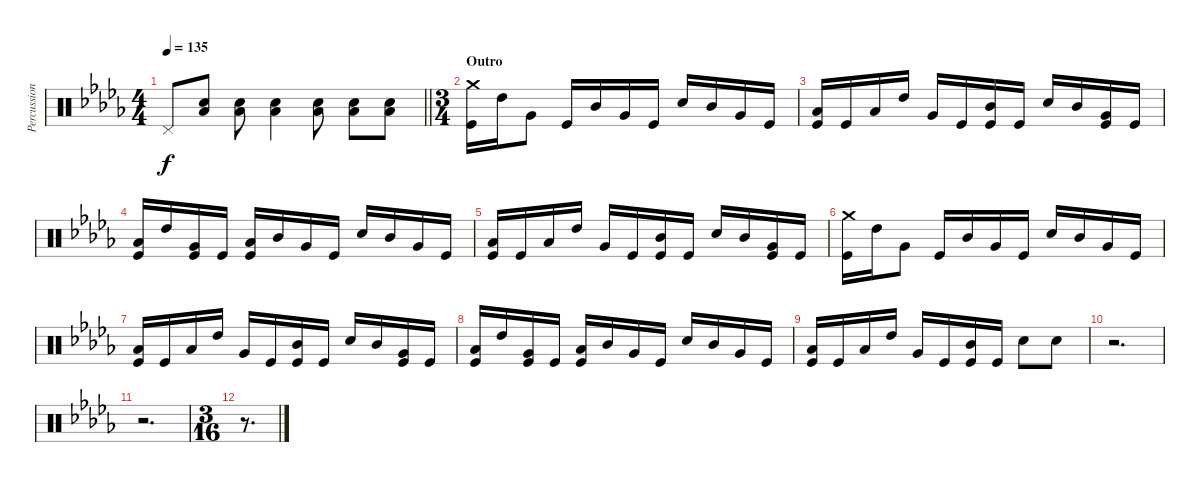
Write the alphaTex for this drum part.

\track ("Percussion" "Percussion") {instrument percussion}
\staff {score}
\articulation defaults
\ts (4 4)
\tempo 135
\clef neutral
\barLineRight lightlight
\ks db "Pedal Hi-Hat (hit)".8{dy f}
("Low Floor Tom (hit)" "Electric Snare (hit)").8 ("Low Floor Tom (hit)" "Electric Snare (hit)").8 ("Low Floor Tom (hit)" "Electric Snare (hit)").4 ("Low Floor Tom (hit)" "Electric Snare (hit)").8 ("Low Floor Tom (hit)" "Electric Snare (hit)").8 ("Low Floor Tom (hit)" "Electric Snare (hit)").8 |
\ts (3 4)
\section ("" "Outro")
("Crash medium (hit)" "Kick (hit)").16 "High Tom (hit)".16 "Very Low Tom (hit)".8 "Kick (hit)".16 "Mid Tom (hit)".16 "Very Low Tom (hit)".16 "Kick (hit)".16 "Electric Snare (hit)".16 "Mid Tom (hit)".16 "Very Low Tom (hit)".16 "Kick (hit)".16 |
("Low Tom (hit)" "Kick (hit)").16 "Kick (hit)".16 "Low Tom (hit)".16 "High Tom (hit)".16 "Very Low Tom (hit)".16 "Kick (hit)".16 ("Mid Tom (hit)" "Kick (hit)").16 "Kick (hit)".16 "Electric Snare (hit)".16 "Mid Tom (hit)".16 ("Very Low Tom (hit)" "Kick (hit)").16 "Kick (hit)".16 |
("Low Tom (hit)" "Kick (hit)").16 "High Tom (hit)".16 ("Very Low Tom (hit)" "Kick (hit)").16 "Kick (hit)".16 ("Low Tom (hit)" "Kick (hit)").16 "Mid Tom (hit)".16 "Very Low Tom (hit)".16 "Kick (hit)".16 "Electric Snare (hit)".16 "Mid Tom (hit)".16 "Very Low Tom (hit)".16 "Kick (hit)".16 |
("Low Tom (hit)" "Kick (hit)").16 "Kick (hit)".16 "Low Tom (hit)".16 "High Tom (hit)".16 "Very Low Tom (hit)".16 "Kick (hit)".16 ("Mid Tom (hit)" "Kick (hit)").16 "Kick (hit)".16 "Electric Snare (hit)".16 "Mid Tom (hit)".16 ("Very Low Tom (hit)" "Kick (hit)").16 "Kick (hit)".16 |
("Crash medium (hit)" "Kick (hit)").16 "High Tom (hit)".16 "Very Low Tom (hit)".8 "Kick (hit)".16 "Mid Tom (hit)".16 "Very Low Tom (hit)".16 "Kick (hit)".16 "Electric Snare (hit)".16 "Mid Tom (hit)".16 "Very Low Tom (hit)".16 "Kick (hit)".16 |
("Low Tom (hit)" "Kick (hit)").16 "Kick (hit)".16 "Low Tom (hit)".16 "High Tom (hit)".16 "Very Low Tom (hit)".16 "Kick (hit)".16 ("Mid Tom (hit)" "Kick (hit)").16 "Kick (hit)".16 "Electric Snare (hit)".16 "Mid Tom (hit)".16 ("Very Low Tom (hit)" "Kick (hit)").16 "Kick (hit)".16 |
("Low Tom (hit)" "Kick (hit)").16 "High Tom (hit)".16 ("Very Low Tom (hit)" "Kick (hit)").16 "Kick (hit)".16 ("Low Tom (hit)" "Kick (hit)").16 "Mid Tom (hit)".16 "Very Low Tom (hit)".16 "Kick (hit)".16 "Electric Snare (hit)".16 "Mid Tom (hit)".16 "Very Low Tom (hit)".16 "Kick (hit)".16 |
("Low Tom (hit)" "Kick (hit)").16 "Kick (hit)".16 "Low Tom (hit)".16 "High Tom (hit)".16 "Very Low Tom (hit)".16 "Kick (hit)".16 ("Mid Tom (hit)" "Kick (hit)").16 "Kick (hit)".16 "Electric Snare (hit)".8 "Electric Snare (hit)".8 |
r.2{d} |
r.2{d} |
\ts (3 16)
r.8{d}
